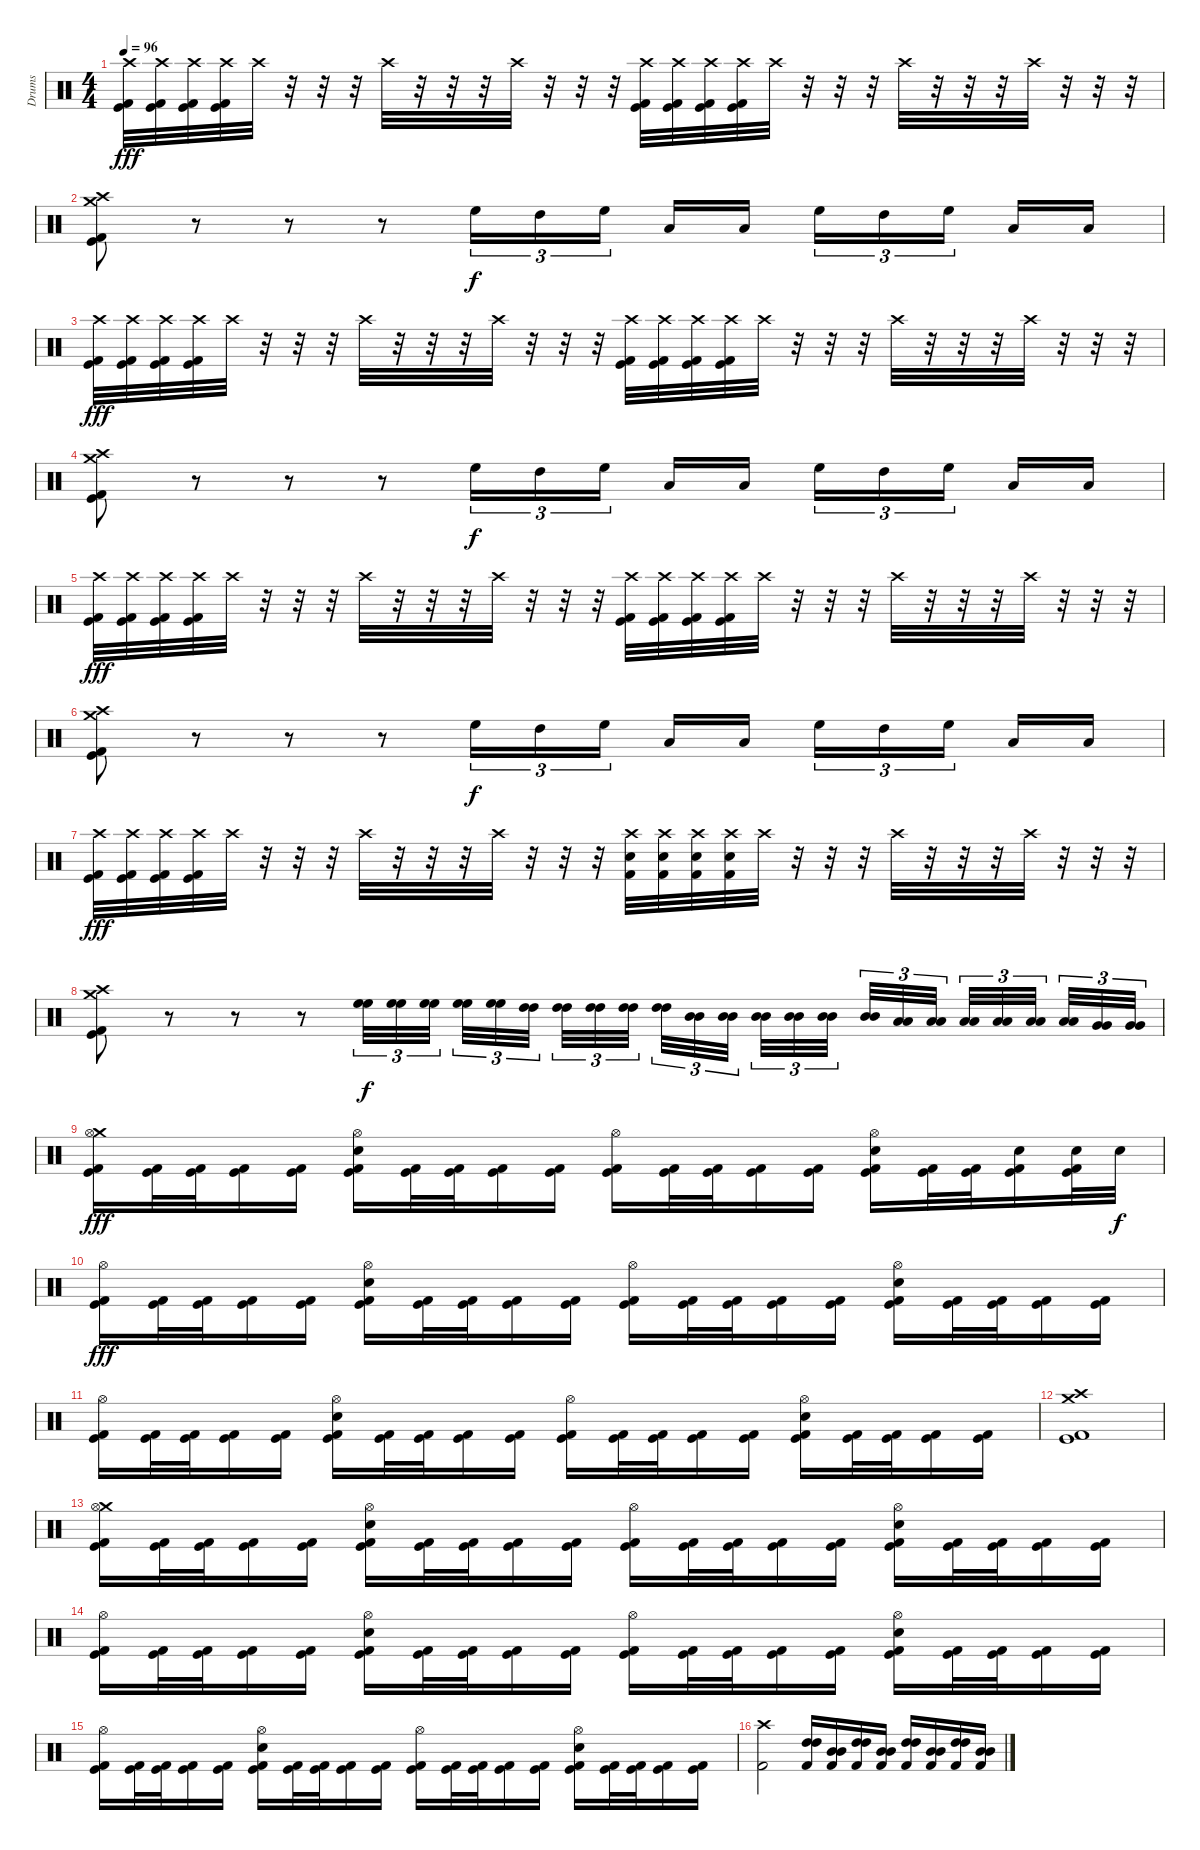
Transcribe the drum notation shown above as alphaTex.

\track ("Drums" "Drums") {instrument percussion}
\staff {score}
\articulation defaults
\ts (4 4)
\tempo 96
\clef neutral
\ks c
("Crash high (hit)" "Kick (hit)" "Kick (hit) 2").32{dy fff} ("Crash high (hit)" "Kick (hit)" "Kick (hit) 2").32 ("Crash high (hit)" "Kick (hit)" "Kick (hit) 2").32 ("Crash high (hit)" "Kick (hit)" "Kick (hit) 2").32 "Crash high (hit)".32 r.32 r.32 r.32 "Crash high (hit)".32 r.32 r.32 r.32 "Crash high (hit)".32 r.32 r.32 r.32 ("Crash high (hit)" "Kick (hit)" "Kick (hit) 2").32 ("Crash high (hit)" "Kick (hit)" "Kick (hit) 2").32 ("Crash high (hit)" "Kick (hit)" "Kick (hit) 2").32 ("Crash high (hit)" "Kick (hit)" "Kick (hit) 2").32 "Crash high (hit)".32 r.32 r.32 r.32 "Crash high (hit)".32 r.32 r.32 r.32 "Crash high (hit)".32 r.32 r.32 r.32 |
("Crash high (hit)" "Crash medium (hit)" "Kick (hit)" "Kick (hit) 2").8 r.8 r.8 r.8 "High Floor Tom (hit)".16{tu (3 2) dy f} "High Tom (hit)".16{tu (3 2)} "High Floor Tom (hit)".16{tu (3 2) beam splitsecondary} "Low Tom (hit)".16 "Low Tom (hit)".16 "High Floor Tom (hit)".16{tu (3 2)} "High Tom (hit)".16{tu (3 2)} "High Floor Tom (hit)".16{tu (3 2) beam splitsecondary} "Low Tom (hit)".16 "Low Tom (hit)".16 |
("Crash high (hit)" "Kick (hit)" "Kick (hit) 2").32{dy fff} ("Crash high (hit)" "Kick (hit)" "Kick (hit) 2").32 ("Crash high (hit)" "Kick (hit)" "Kick (hit) 2").32 ("Crash high (hit)" "Kick (hit)" "Kick (hit) 2").32 "Crash high (hit)".32 r.32 r.32 r.32 "Crash high (hit)".32 r.32 r.32 r.32 "Crash high (hit)".32 r.32 r.32 r.32 ("Crash high (hit)" "Kick (hit)" "Kick (hit) 2").32 ("Crash high (hit)" "Kick (hit)" "Kick (hit) 2").32 ("Crash high (hit)" "Kick (hit)" "Kick (hit) 2").32 ("Crash high (hit)" "Kick (hit)" "Kick (hit) 2").32 "Crash high (hit)".32 r.32 r.32 r.32 "Crash high (hit)".32 r.32 r.32 r.32 "Crash high (hit)".32 r.32 r.32 r.32 |
("Crash high (hit)" "Crash medium (hit)" "Kick (hit)" "Kick (hit) 2").8 r.8 r.8 r.8 "High Floor Tom (hit)".16{tu (3 2) dy f} "High Tom (hit)".16{tu (3 2)} "High Floor Tom (hit)".16{tu (3 2) beam splitsecondary} "Low Tom (hit)".16 "Low Tom (hit)".16 "High Floor Tom (hit)".16{tu (3 2)} "High Tom (hit)".16{tu (3 2)} "High Floor Tom (hit)".16{tu (3 2) beam splitsecondary} "Low Tom (hit)".16 "Low Tom (hit)".16 |
("Crash high (hit)" "Kick (hit)" "Kick (hit) 2").32{dy fff} ("Crash high (hit)" "Kick (hit)" "Kick (hit) 2").32 ("Crash high (hit)" "Kick (hit)" "Kick (hit) 2").32 ("Crash high (hit)" "Kick (hit)" "Kick (hit) 2").32 "Crash high (hit)".32 r.32 r.32 r.32 "Crash high (hit)".32 r.32 r.32 r.32 "Crash high (hit)".32 r.32 r.32 r.32 ("Crash high (hit)" "Kick (hit)" "Kick (hit) 2").32 ("Crash high (hit)" "Kick (hit)" "Kick (hit) 2").32 ("Crash high (hit)" "Kick (hit)" "Kick (hit) 2").32 ("Crash high (hit)" "Kick (hit)" "Kick (hit) 2").32 "Crash high (hit)".32 r.32 r.32 r.32 "Crash high (hit)".32 r.32 r.32 r.32 "Crash high (hit)".32 r.32 r.32 r.32 |
("Crash high (hit)" "Crash medium (hit)" "Kick (hit)" "Kick (hit) 2").8 r.8 r.8 r.8 "High Floor Tom (hit)".16{tu (3 2) dy f} "High Tom (hit)".16{tu (3 2)} "High Floor Tom (hit)".16{tu (3 2) beam splitsecondary} "Low Tom (hit)".16 "Low Tom (hit)".16 "High Floor Tom (hit)".16{tu (3 2)} "High Tom (hit)".16{tu (3 2)} "High Floor Tom (hit)".16{tu (3 2) beam splitsecondary} "Low Tom (hit)".16 "Low Tom (hit)".16 |
("Crash high (hit)" "Kick (hit)" "Kick (hit) 2").32{dy fff} ("Crash high (hit)" "Kick (hit)" "Kick (hit) 2").32 ("Crash high (hit)" "Kick (hit)" "Kick (hit) 2").32 ("Crash high (hit)" "Kick (hit)" "Kick (hit) 2").32 "Crash high (hit)".32 r.32 r.32 r.32 "Crash high (hit)".32 r.32 r.32 r.32 "Crash high (hit)".32 r.32 r.32 r.32 ("Crash high (hit)" "Kick (hit) 2" "Snare (hit) 2").32 ("Crash high (hit)" "Kick (hit) 2" "Snare (hit) 2").32 ("Crash high (hit)" "Kick (hit) 2" "Snare (hit) 2").32 ("Crash high (hit)" "Kick (hit) 2" "Snare (hit) 2").32 "Crash high (hit)".32 r.32 r.32 r.32 "Crash high (hit)".32 r.32 r.32 r.32 "Crash high (hit)".32 r.32 r.32 r.32 |
("Crash high (hit)" "Crash medium (hit)" "Kick (hit)" "Kick (hit) 2").8 r.8 r.8 r.8 ("High Floor Tom (hit)" "High Floor Tom (hit)").32{tu (3 2) dy f} ("High Floor Tom (hit)" "High Floor Tom (hit)").32{tu (3 2)} ("High Floor Tom (hit)" "High Floor Tom (hit)").32{tu (3 2) beam splitsecondary} ("High Floor Tom (hit)" "High Floor Tom (hit)").32{tu (3 2)} ("High Floor Tom (hit)" "High Floor Tom (hit)").32{tu (3 2)} ("High Tom (hit)" "High Tom (hit)").32{tu (3 2) beam splitsecondary} ("High Tom (hit)" "High Tom (hit)").32{tu (3 2)} ("High Tom (hit)" "High Tom (hit)").32{tu (3 2)} ("High Tom (hit)" "High Tom (hit)").32{tu (3 2) beam splitsecondary} ("High Tom (hit)" "High Tom (hit)").32{tu (3 2)} ("Mid Tom (hit)" "Mid Tom (hit)").32{tu (3 2)} ("Mid Tom (hit)" "Mid Tom (hit)").32{tu (3 2)} ("Mid Tom (hit)" "Mid Tom (hit)").32{tu (3 2)} ("Mid Tom (hit)" "Mid Tom (hit)").32{tu (3 2)} ("Mid Tom (hit)" "Mid Tom (hit)").32{tu (3 2) beam splitsecondary} ("Mid Tom (hit)" "Mid Tom (hit)").32{tu (3 2)} ("Low Tom (hit)" "Low Tom (hit)").32{tu (3 2)} ("Low Tom (hit)" "Low Tom (hit)").32{tu (3 2) beam splitsecondary} ("Low Tom (hit)" "Low Tom (hit)").32{tu (3 2)} ("Low Tom (hit)" "Low Tom (hit)").32{tu (3 2)} ("Low Tom (hit)" "Low Tom (hit)").32{tu (3 2) beam splitsecondary} ("Low Tom (hit)" "Low Tom (hit)").32{tu (3 2)} ("Very Low Tom (hit)" "Very Low Tom (hit)").32{tu (3 2)} ("Very Low Tom (hit)" "Very Low Tom (hit)").32{tu (3 2)} |
("Crash medium (hit)" "Kick (hit)" "Kick (hit) 2" "Hi-Hat (open)").16{dy fff} ("Kick (hit)" "Kick (hit) 2").32 ("Kick (hit)" "Kick (hit) 2").32 ("Kick (hit)" "Kick (hit) 2").16 ("Kick (hit)" "Kick (hit) 2").16 ("Snare (hit) 2" "Kick (hit)" "Kick (hit) 2" "Hi-Hat (open)").16 ("Kick (hit)" "Kick (hit) 2").32 ("Kick (hit)" "Kick (hit) 2").32 ("Kick (hit)" "Kick (hit) 2").16 ("Kick (hit)" "Kick (hit) 2").16 ("Kick (hit)" "Kick (hit) 2" "Hi-Hat (open)").16 ("Kick (hit)" "Kick (hit) 2").32 ("Kick (hit)" "Kick (hit) 2").32 ("Kick (hit)" "Kick (hit) 2").16 ("Kick (hit)" "Kick (hit) 2").16 ("Snare (hit) 2" "Kick (hit)" "Kick (hit) 2" "Hi-Hat (open)").16 ("Kick (hit)" "Kick (hit) 2").32 ("Kick (hit)" "Kick (hit) 2").32 ("Snare (hit) 2" "Kick (hit)" "Kick (hit) 2").16 ("Snare (hit) 2" "Kick (hit)" "Kick (hit) 2").32 "Snare (hit) 2".32{dy f} |
("Kick (hit)" "Kick (hit) 2" "Hi-Hat (open)").16{dy fff} ("Kick (hit)" "Kick (hit) 2").32 ("Kick (hit)" "Kick (hit) 2").32 ("Kick (hit)" "Kick (hit) 2").16 ("Kick (hit)" "Kick (hit) 2").16 ("Snare (hit) 2" "Kick (hit)" "Kick (hit) 2" "Hi-Hat (open)").16 ("Kick (hit)" "Kick (hit) 2").32 ("Kick (hit)" "Kick (hit) 2").32 ("Kick (hit)" "Kick (hit) 2").16 ("Kick (hit)" "Kick (hit) 2").16 ("Kick (hit)" "Kick (hit) 2" "Hi-Hat (open)").16 ("Kick (hit)" "Kick (hit) 2").32 ("Kick (hit)" "Kick (hit) 2").32 ("Kick (hit)" "Kick (hit) 2").16 ("Kick (hit)" "Kick (hit) 2").16 ("Snare (hit) 2" "Kick (hit)" "Kick (hit) 2" "Hi-Hat (open)").16 ("Kick (hit)" "Kick (hit) 2").32 ("Kick (hit)" "Kick (hit) 2").32 ("Kick (hit)" "Kick (hit) 2").16 ("Kick (hit)" "Kick (hit) 2").16 |
("Kick (hit)" "Kick (hit) 2" "Hi-Hat (open)").16 ("Kick (hit)" "Kick (hit) 2").32 ("Kick (hit)" "Kick (hit) 2").32 ("Kick (hit)" "Kick (hit) 2").16 ("Kick (hit)" "Kick (hit) 2").16 ("Snare (hit) 2" "Kick (hit)" "Kick (hit) 2" "Hi-Hat (open)").16 ("Kick (hit)" "Kick (hit) 2").32 ("Kick (hit)" "Kick (hit) 2").32 ("Kick (hit)" "Kick (hit) 2").16 ("Kick (hit)" "Kick (hit) 2").16 ("Kick (hit)" "Kick (hit) 2" "Hi-Hat (open)").16 ("Kick (hit)" "Kick (hit) 2").32 ("Kick (hit)" "Kick (hit) 2").32 ("Kick (hit)" "Kick (hit) 2").16 ("Kick (hit)" "Kick (hit) 2").16 ("Snare (hit) 2" "Kick (hit)" "Kick (hit) 2" "Hi-Hat (open)").16 ("Kick (hit)" "Kick (hit) 2").32 ("Kick (hit)" "Kick (hit) 2").32 ("Kick (hit)" "Kick (hit) 2").16 ("Kick (hit)" "Kick (hit) 2").16 |
("Crash high (hit)" "Crash medium (hit)" "Kick (hit)" "Kick (hit) 2").1 |
("Crash medium (hit)" "Kick (hit)" "Kick (hit) 2" "Hi-Hat (open)").16 ("Kick (hit)" "Kick (hit) 2").32 ("Kick (hit)" "Kick (hit) 2").32 ("Kick (hit)" "Kick (hit) 2").16 ("Kick (hit)" "Kick (hit) 2").16 ("Snare (hit) 2" "Kick (hit)" "Kick (hit) 2" "Hi-Hat (open)").16 ("Kick (hit)" "Kick (hit) 2").32 ("Kick (hit)" "Kick (hit) 2").32 ("Kick (hit)" "Kick (hit) 2").16 ("Kick (hit)" "Kick (hit) 2").16 ("Kick (hit)" "Kick (hit) 2" "Hi-Hat (open)").16 ("Kick (hit)" "Kick (hit) 2").32 ("Kick (hit)" "Kick (hit) 2").32 ("Kick (hit)" "Kick (hit) 2").16 ("Kick (hit)" "Kick (hit) 2").16 ("Snare (hit) 2" "Kick (hit)" "Kick (hit) 2" "Hi-Hat (open)").16 ("Kick (hit)" "Kick (hit) 2").32 ("Kick (hit)" "Kick (hit) 2").32 ("Kick (hit)" "Kick (hit) 2").16 ("Kick (hit)" "Kick (hit) 2").16 |
("Kick (hit)" "Kick (hit) 2" "Hi-Hat (open)").16 ("Kick (hit)" "Kick (hit) 2").32 ("Kick (hit)" "Kick (hit) 2").32 ("Kick (hit)" "Kick (hit) 2").16 ("Kick (hit)" "Kick (hit) 2").16 ("Snare (hit) 2" "Kick (hit)" "Kick (hit) 2" "Hi-Hat (open)").16 ("Kick (hit)" "Kick (hit) 2").32 ("Kick (hit)" "Kick (hit) 2").32 ("Kick (hit)" "Kick (hit) 2").16 ("Kick (hit)" "Kick (hit) 2").16 ("Kick (hit)" "Kick (hit) 2" "Hi-Hat (open)").16 ("Kick (hit)" "Kick (hit) 2").32 ("Kick (hit)" "Kick (hit) 2").32 ("Kick (hit)" "Kick (hit) 2").16 ("Kick (hit)" "Kick (hit) 2").16 ("Snare (hit) 2" "Kick (hit)" "Kick (hit) 2" "Hi-Hat (open)").16 ("Kick (hit)" "Kick (hit) 2").32 ("Kick (hit)" "Kick (hit) 2").32 ("Kick (hit)" "Kick (hit) 2").16 ("Kick (hit)" "Kick (hit) 2").16 |
("Kick (hit)" "Kick (hit) 2" "Hi-Hat (open)").16 ("Kick (hit)" "Kick (hit) 2").32 ("Kick (hit)" "Kick (hit) 2").32 ("Kick (hit)" "Kick (hit) 2").16 ("Kick (hit)" "Kick (hit) 2").16 ("Snare (hit) 2" "Kick (hit)" "Kick (hit) 2" "Hi-Hat (open)").16 ("Kick (hit)" "Kick (hit) 2").32 ("Kick (hit)" "Kick (hit) 2").32 ("Kick (hit)" "Kick (hit) 2").16 ("Kick (hit)" "Kick (hit) 2").16 ("Kick (hit)" "Kick (hit) 2" "Hi-Hat (open)").16 ("Kick (hit)" "Kick (hit) 2").32 ("Kick (hit)" "Kick (hit) 2").32 ("Kick (hit)" "Kick (hit) 2").16 ("Kick (hit)" "Kick (hit) 2").16 ("Snare (hit) 2" "Kick (hit)" "Kick (hit) 2" "Hi-Hat (open)").16 ("Kick (hit)" "Kick (hit) 2").32 ("Kick (hit)" "Kick (hit) 2").32 ("Kick (hit)" "Kick (hit) 2").16 ("Kick (hit)" "Kick (hit) 2").16 |
("Crash high (hit)" "Kick (hit) 2").2 ("High Tom (hit)" "High Tom (hit)" "Kick (hit) 2").16 ("Mid Tom (hit)" "Mid Tom (hit)" "Kick (hit) 2").16 ("High Tom (hit)" "High Tom (hit)" "Kick (hit) 2").16 ("Mid Tom (hit)" "Mid Tom (hit)" "Kick (hit) 2").16 ("High Tom (hit)" "High Tom (hit)" "Kick (hit) 2").16 ("Mid Tom (hit)" "Mid Tom (hit)" "Kick (hit) 2").16 ("High Tom (hit)" "High Tom (hit)" "Kick (hit) 2").16 ("Mid Tom (hit)" "Mid Tom (hit)" "Kick (hit) 2").16
